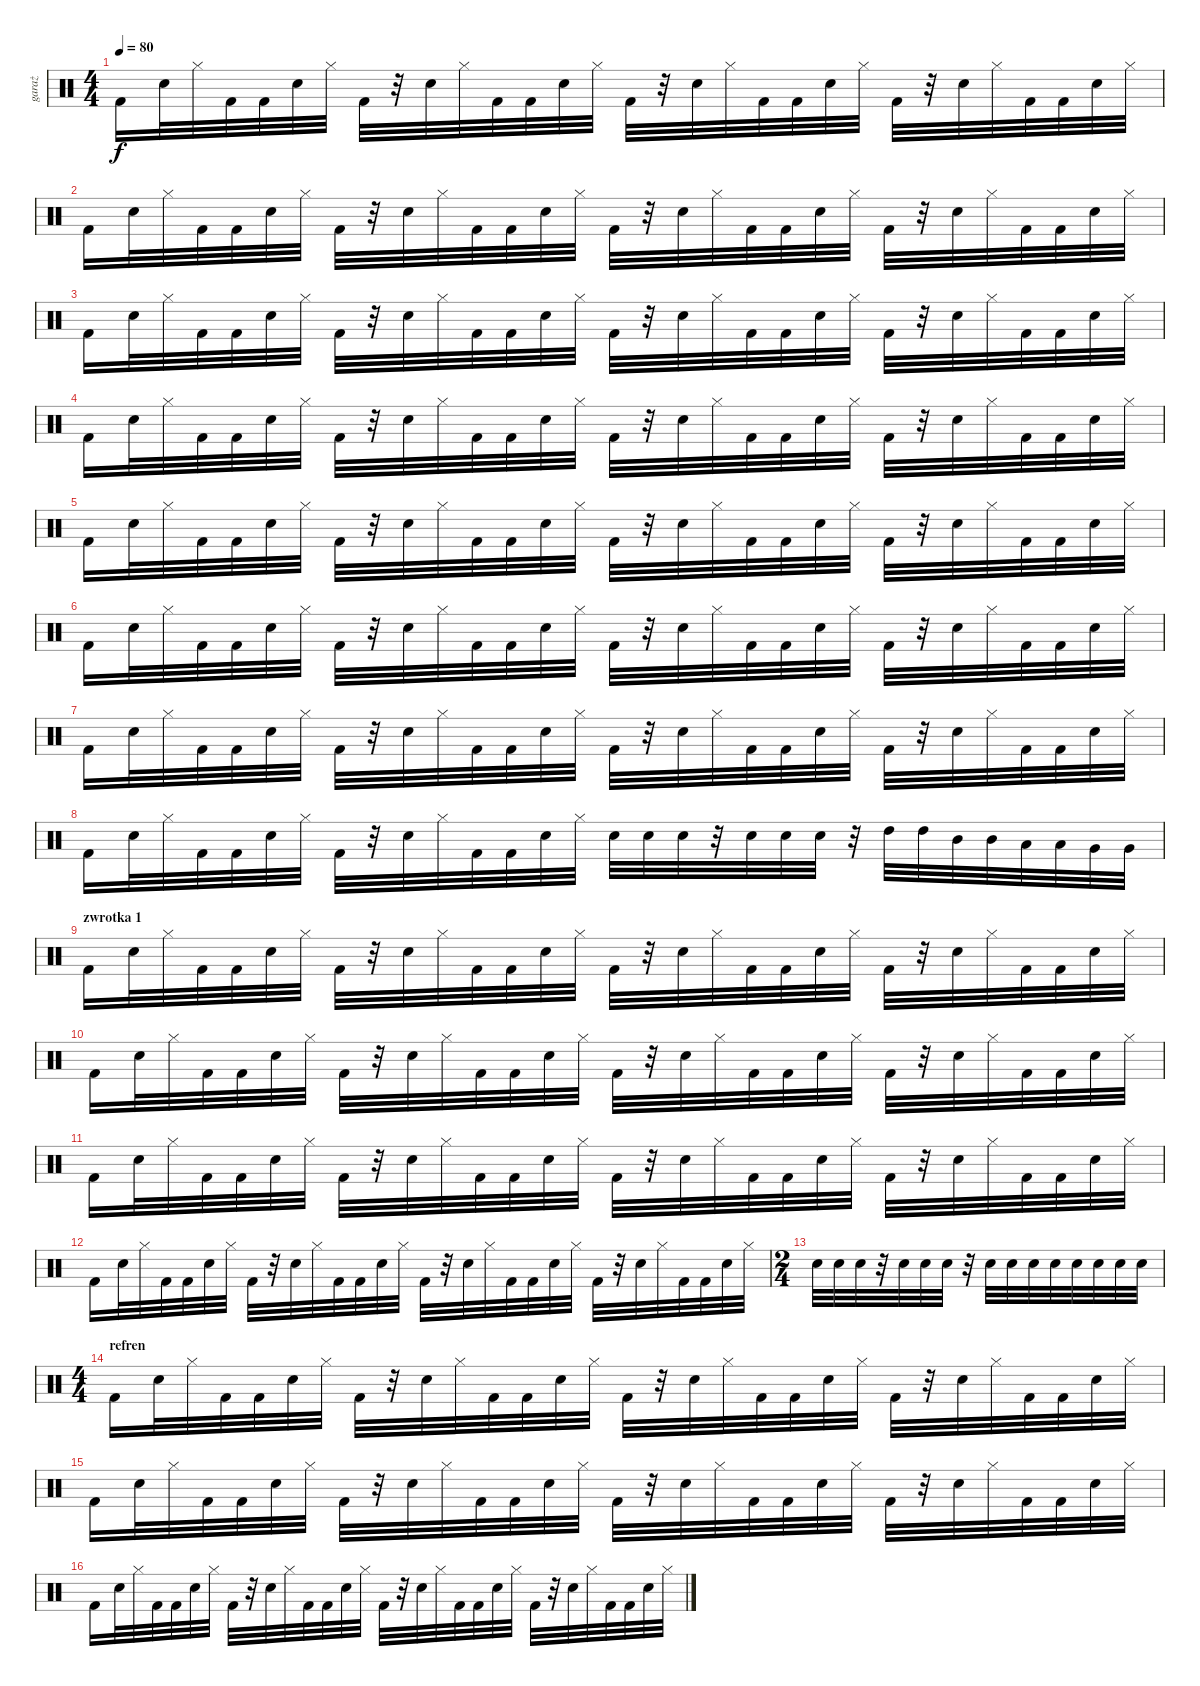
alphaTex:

\track ("garaż" "garaż") {instrument percussion}
\staff {score}
\articulation defaults
\ts (4 4)
\tempo 80
\clef neutral
\ks c "Kick (hit) 2".16{dy f} "Snare (hit) 2".32 "Hi-Hat (closed)".32 "Kick (hit) 2".32 "Kick (hit) 2".32 "Snare (hit) 2".32 "Hi-Hat (closed)".32 "Kick (hit) 2".32
r.32 "Snare (hit) 2".32 "Hi-Hat (closed)".32 "Kick (hit) 2".32 "Kick (hit) 2".32 "Snare (hit) 2".32 "Hi-Hat (closed)".32 "Kick (hit) 2".32 r.32 "Snare (hit) 2".32 "Hi-Hat (closed)".32 "Kick (hit) 2".32 "Kick (hit) 2".32 "Snare (hit) 2".32 "Hi-Hat (closed)".32 "Kick (hit) 2".32 r.32 "Snare (hit) 2".32 "Hi-Hat (closed)".32 "Kick (hit) 2".32 "Kick (hit) 2".32 "Snare (hit) 2".32 "Hi-Hat (closed)".32 |
"Kick (hit) 2".16 "Snare (hit) 2".32 "Hi-Hat (closed)".32 "Kick (hit) 2".32 "Kick (hit) 2".32 "Snare (hit) 2".32 "Hi-Hat (closed)".32 "Kick (hit) 2".32 r.32 "Snare (hit) 2".32 "Hi-Hat (closed)".32 "Kick (hit) 2".32 "Kick (hit) 2".32 "Snare (hit) 2".32 "Hi-Hat (closed)".32 "Kick (hit) 2".32 r.32 "Snare (hit) 2".32 "Hi-Hat (closed)".32 "Kick (hit) 2".32 "Kick (hit) 2".32 "Snare (hit) 2".32 "Hi-Hat (closed)".32 "Kick (hit) 2".32 r.32 "Snare (hit) 2".32 "Hi-Hat (closed)".32 "Kick (hit) 2".32 "Kick (hit) 2".32 "Snare (hit) 2".32 "Hi-Hat (closed)".32 |
"Kick (hit) 2".16 "Snare (hit) 2".32 "Hi-Hat (closed)".32 "Kick (hit) 2".32 "Kick (hit) 2".32 "Snare (hit) 2".32 "Hi-Hat (closed)".32 "Kick (hit) 2".32 r.32 "Snare (hit) 2".32 "Hi-Hat (closed)".32 "Kick (hit) 2".32 "Kick (hit) 2".32 "Snare (hit) 2".32 "Hi-Hat (closed)".32 "Kick (hit) 2".32 r.32 "Snare (hit) 2".32 "Hi-Hat (closed)".32 "Kick (hit) 2".32 "Kick (hit) 2".32 "Snare (hit) 2".32 "Hi-Hat (closed)".32 "Kick (hit) 2".32 r.32 "Snare (hit) 2".32 "Hi-Hat (closed)".32 "Kick (hit) 2".32 "Kick (hit) 2".32 "Snare (hit) 2".32 "Hi-Hat (closed)".32 |
"Kick (hit) 2".16 "Snare (hit) 2".32 "Hi-Hat (closed)".32 "Kick (hit) 2".32 "Kick (hit) 2".32 "Snare (hit) 2".32 "Hi-Hat (closed)".32 "Kick (hit) 2".32 r.32 "Snare (hit) 2".32 "Hi-Hat (closed)".32 "Kick (hit) 2".32 "Kick (hit) 2".32 "Snare (hit) 2".32 "Hi-Hat (closed)".32 "Kick (hit) 2".32 r.32 "Snare (hit) 2".32 "Hi-Hat (closed)".32 "Kick (hit) 2".32 "Kick (hit) 2".32 "Snare (hit) 2".32 "Hi-Hat (closed)".32 "Kick (hit) 2".32 r.32 "Snare (hit) 2".32 "Hi-Hat (closed)".32 "Kick (hit) 2".32 "Kick (hit) 2".32 "Snare (hit) 2".32 "Hi-Hat (closed)".32 |
"Kick (hit) 2".16 "Snare (hit) 2".32 "Hi-Hat (closed)".32 "Kick (hit) 2".32 "Kick (hit) 2".32 "Snare (hit) 2".32 "Hi-Hat (closed)".32 "Kick (hit) 2".32 r.32 "Snare (hit) 2".32 "Hi-Hat (closed)".32 "Kick (hit) 2".32 "Kick (hit) 2".32 "Snare (hit) 2".32 "Hi-Hat (closed)".32 "Kick (hit) 2".32 r.32 "Snare (hit) 2".32 "Hi-Hat (closed)".32 "Kick (hit) 2".32 "Kick (hit) 2".32 "Snare (hit) 2".32 "Hi-Hat (closed)".32 "Kick (hit) 2".32 r.32 "Snare (hit) 2".32 "Hi-Hat (closed)".32 "Kick (hit) 2".32 "Kick (hit) 2".32 "Snare (hit) 2".32 "Hi-Hat (closed)".32 |
"Kick (hit) 2".16 "Snare (hit) 2".32 "Hi-Hat (closed)".32 "Kick (hit) 2".32 "Kick (hit) 2".32 "Snare (hit) 2".32 "Hi-Hat (closed)".32 "Kick (hit) 2".32 r.32 "Snare (hit) 2".32 "Hi-Hat (closed)".32 "Kick (hit) 2".32 "Kick (hit) 2".32 "Snare (hit) 2".32 "Hi-Hat (closed)".32 "Kick (hit) 2".32 r.32 "Snare (hit) 2".32 "Hi-Hat (closed)".32 "Kick (hit) 2".32 "Kick (hit) 2".32 "Snare (hit) 2".32 "Hi-Hat (closed)".32 "Kick (hit) 2".32 r.32 "Snare (hit) 2".32 "Hi-Hat (closed)".32 "Kick (hit) 2".32 "Kick (hit) 2".32 "Snare (hit) 2".32 "Hi-Hat (closed)".32 |
"Kick (hit) 2".16 "Snare (hit) 2".32 "Hi-Hat (closed)".32 "Kick (hit) 2".32 "Kick (hit) 2".32 "Snare (hit) 2".32 "Hi-Hat (closed)".32 "Kick (hit) 2".32 r.32 "Snare (hit) 2".32 "Hi-Hat (closed)".32 "Kick (hit) 2".32 "Kick (hit) 2".32 "Snare (hit) 2".32 "Hi-Hat (closed)".32 "Kick (hit) 2".32 r.32 "Snare (hit) 2".32 "Hi-Hat (closed)".32 "Kick (hit) 2".32 "Kick (hit) 2".32 "Snare (hit) 2".32 "Hi-Hat (closed)".32 "Kick (hit) 2".32 r.32 "Snare (hit) 2".32 "Hi-Hat (closed)".32 "Kick (hit) 2".32 "Kick (hit) 2".32 "Snare (hit) 2".32 "Hi-Hat (closed)".32 |
"Kick (hit) 2".16 "Snare (hit) 2".32 "Hi-Hat (closed)".32 "Kick (hit) 2".32 "Kick (hit) 2".32 "Snare (hit) 2".32 "Hi-Hat (closed)".32 "Kick (hit) 2".32 r.32 "Snare (hit) 2".32 "Hi-Hat (closed)".32 "Kick (hit) 2".32 "Kick (hit) 2".32 "Snare (hit) 2".32 "Hi-Hat (closed)".32 "Snare (hit) 2".32 "Snare (hit) 2".32 "Snare (hit) 2".32 r.32 "Snare (hit) 2".32 "Snare (hit) 2".32 "Snare (hit) 2".32 r.32 "High Tom (hit)".32 "High Tom (hit)".32 "Mid Tom (hit)".32 "Mid Tom (hit)".32 "Low Tom (hit)".32 "Low Tom (hit)".32 "Very Low Tom (hit)".32 "Very Low Tom (hit)".32 |
\section ("" "zwrotka 1")
"Kick (hit) 2".16 "Snare (hit) 2".32 "Hi-Hat (closed)".32 "Kick (hit) 2".32 "Kick (hit) 2".32 "Snare (hit) 2".32 "Hi-Hat (closed)".32 "Kick (hit) 2".32 r.32 "Snare (hit) 2".32 "Hi-Hat (closed)".32 "Kick (hit) 2".32 "Kick (hit) 2".32 "Snare (hit) 2".32 "Hi-Hat (closed)".32 "Kick (hit) 2".32 r.32 "Snare (hit) 2".32 "Hi-Hat (closed)".32 "Kick (hit) 2".32 "Kick (hit) 2".32 "Snare (hit) 2".32 "Hi-Hat (closed)".32 "Kick (hit) 2".32 r.32 "Snare (hit) 2".32 "Hi-Hat (closed)".32 "Kick (hit) 2".32 "Kick (hit) 2".32 "Snare (hit) 2".32 "Hi-Hat (closed)".32 |
"Kick (hit) 2".16 "Snare (hit) 2".32 "Hi-Hat (closed)".32 "Kick (hit) 2".32 "Kick (hit) 2".32 "Snare (hit) 2".32 "Hi-Hat (closed)".32 "Kick (hit) 2".32 r.32 "Snare (hit) 2".32 "Hi-Hat (closed)".32 "Kick (hit) 2".32 "Kick (hit) 2".32 "Snare (hit) 2".32 "Hi-Hat (closed)".32 "Kick (hit) 2".32 r.32 "Snare (hit) 2".32 "Hi-Hat (closed)".32 "Kick (hit) 2".32 "Kick (hit) 2".32 "Snare (hit) 2".32 "Hi-Hat (closed)".32 "Kick (hit) 2".32 r.32 "Snare (hit) 2".32 "Hi-Hat (closed)".32 "Kick (hit) 2".32 "Kick (hit) 2".32 "Snare (hit) 2".32 "Hi-Hat (closed)".32 |
"Kick (hit) 2".16 "Snare (hit) 2".32 "Hi-Hat (closed)".32 "Kick (hit) 2".32 "Kick (hit) 2".32 "Snare (hit) 2".32 "Hi-Hat (closed)".32 "Kick (hit) 2".32 r.32 "Snare (hit) 2".32 "Hi-Hat (closed)".32 "Kick (hit) 2".32 "Kick (hit) 2".32 "Snare (hit) 2".32 "Hi-Hat (closed)".32 "Kick (hit) 2".32 r.32 "Snare (hit) 2".32 "Hi-Hat (closed)".32 "Kick (hit) 2".32 "Kick (hit) 2".32 "Snare (hit) 2".32 "Hi-Hat (closed)".32 "Kick (hit) 2".32 r.32 "Snare (hit) 2".32 "Hi-Hat (closed)".32 "Kick (hit) 2".32 "Kick (hit) 2".32 "Snare (hit) 2".32 "Hi-Hat (closed)".32 |
"Kick (hit) 2".16 "Snare (hit) 2".32 "Hi-Hat (closed)".32 "Kick (hit) 2".32 "Kick (hit) 2".32 "Snare (hit) 2".32 "Hi-Hat (closed)".32 "Kick (hit) 2".32 r.32 "Snare (hit) 2".32 "Hi-Hat (closed)".32 "Kick (hit) 2".32 "Kick (hit) 2".32 "Snare (hit) 2".32 "Hi-Hat (closed)".32 "Kick (hit) 2".32 r.32 "Snare (hit) 2".32 "Hi-Hat (closed)".32 "Kick (hit) 2".32 "Kick (hit) 2".32 "Snare (hit) 2".32 "Hi-Hat (closed)".32 "Kick (hit) 2".32 r.32 "Snare (hit) 2".32 "Hi-Hat (closed)".32 "Kick (hit) 2".32 "Kick (hit) 2".32 "Snare (hit) 2".32 "Hi-Hat (closed)".32 |
\ts (2 4)
"Snare (hit) 2".32 "Snare (hit) 2".32 "Snare (hit) 2".32 r.32 "Snare (hit) 2".32 "Snare (hit) 2".32 "Snare (hit) 2".32 r.32 "Snare (hit) 2".32 "Snare (hit) 2".32 "Snare (hit) 2".32 "Snare (hit) 2".32 "Snare (hit) 2".32 "Snare (hit) 2".32 "Snare (hit) 2".32 "Snare (hit) 2".32 |
\ts (4 4)
\section ("" "refren")
"Kick (hit) 2".16 "Snare (hit) 2".32 "Hi-Hat (closed)".32 "Kick (hit) 2".32 "Kick (hit) 2".32 "Snare (hit) 2".32 "Hi-Hat (closed)".32 "Kick (hit) 2".32 r.32 "Snare (hit) 2".32 "Hi-Hat (closed)".32 "Kick (hit) 2".32 "Kick (hit) 2".32 "Snare (hit) 2".32 "Hi-Hat (closed)".32 "Kick (hit) 2".32 r.32 "Snare (hit) 2".32 "Hi-Hat (closed)".32 "Kick (hit) 2".32 "Kick (hit) 2".32 "Snare (hit) 2".32 "Hi-Hat (closed)".32 "Kick (hit) 2".32 r.32 "Snare (hit) 2".32 "Hi-Hat (closed)".32 "Kick (hit) 2".32 "Kick (hit) 2".32 "Snare (hit) 2".32 "Hi-Hat (closed)".32 |
"Kick (hit) 2".16 "Snare (hit) 2".32 "Hi-Hat (closed)".32 "Kick (hit) 2".32 "Kick (hit) 2".32 "Snare (hit) 2".32 "Hi-Hat (closed)".32 "Kick (hit) 2".32 r.32 "Snare (hit) 2".32 "Hi-Hat (closed)".32 "Kick (hit) 2".32 "Kick (hit) 2".32 "Snare (hit) 2".32 "Hi-Hat (closed)".32 "Kick (hit) 2".32 r.32 "Snare (hit) 2".32 "Hi-Hat (closed)".32 "Kick (hit) 2".32 "Kick (hit) 2".32 "Snare (hit) 2".32 "Hi-Hat (closed)".32 "Kick (hit) 2".32 r.32 "Snare (hit) 2".32 "Hi-Hat (closed)".32 "Kick (hit) 2".32 "Kick (hit) 2".32 "Snare (hit) 2".32 "Hi-Hat (closed)".32 |
"Kick (hit) 2".16 "Snare (hit) 2".32 "Hi-Hat (closed)".32 "Kick (hit) 2".32 "Kick (hit) 2".32 "Snare (hit) 2".32 "Hi-Hat (closed)".32 "Kick (hit) 2".32 r.32 "Snare (hit) 2".32 "Hi-Hat (closed)".32 "Kick (hit) 2".32 "Kick (hit) 2".32 "Snare (hit) 2".32 "Hi-Hat (closed)".32 "Kick (hit) 2".32 r.32 "Snare (hit) 2".32 "Hi-Hat (closed)".32 "Kick (hit) 2".32 "Kick (hit) 2".32 "Snare (hit) 2".32 "Hi-Hat (closed)".32 "Kick (hit) 2".32 r.32 "Snare (hit) 2".32 "Hi-Hat (closed)".32 "Kick (hit) 2".32 "Kick (hit) 2".32 "Snare (hit) 2".32 "Hi-Hat (closed)".32
